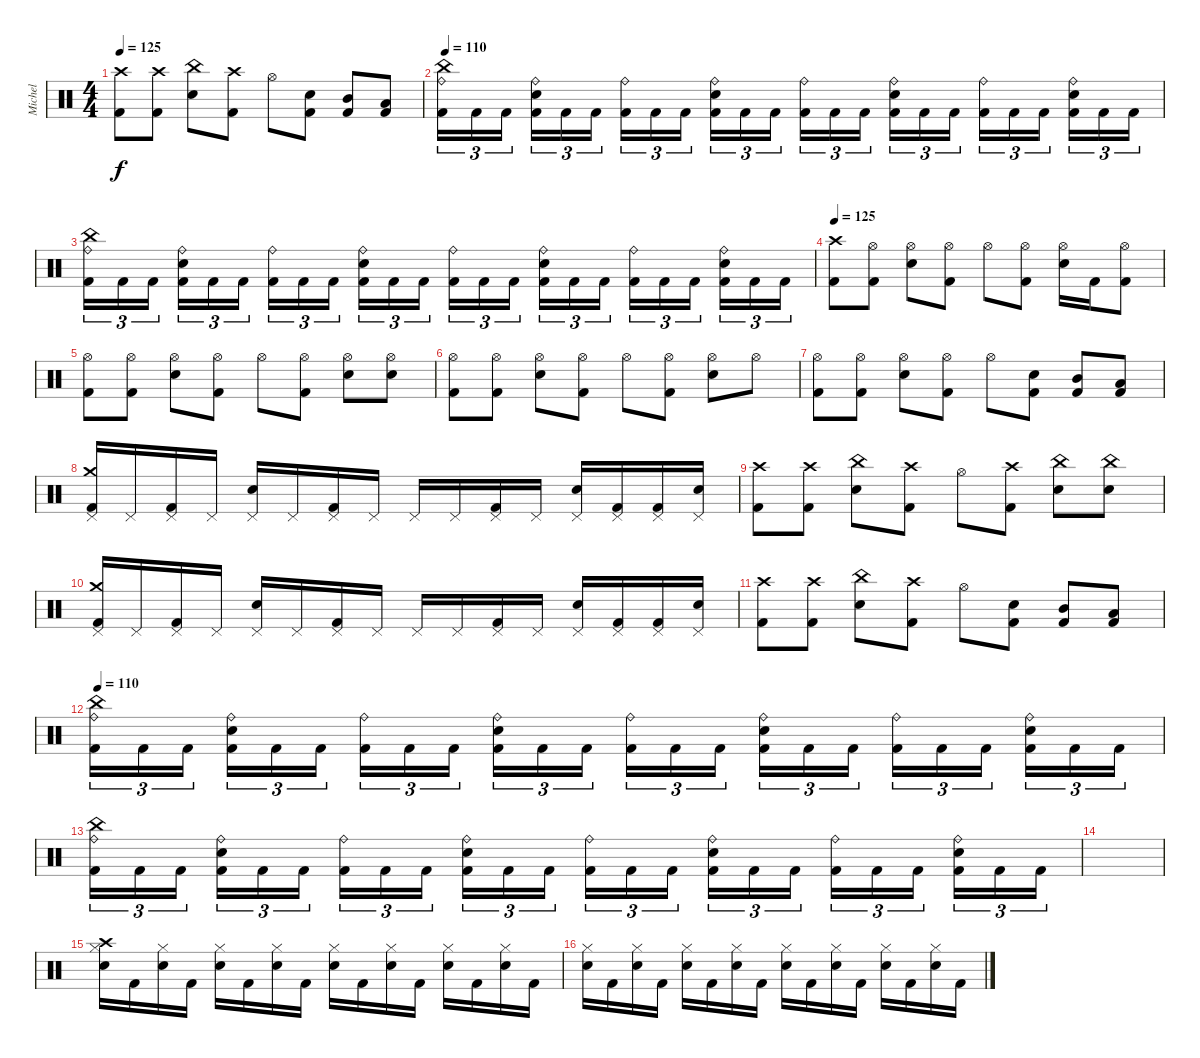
\track ("Michel" "Michel") {instrument percussion}
\staff {score}
\articulation defaults
\ts (4 4)
\tempo 125
\clef neutral
\ks c
("Crash high (hit)" "Kick (hit) 2").8{dy f} ("Crash high (hit)" "Kick (hit) 2").8 ("China (hit)" "Snare (hit) 2").8 ("Crash high (hit)" "Kick (hit) 2").8 "Hi-Hat (open)".8 ("Snare (hit) 2" "Kick (hit) 2").8 ("Mid Tom (hit)" "Kick (hit) 2").8 ("Low Tom (hit)" "Kick (hit) 2").8 |
\tempo 110
("China (hit)" "Kick (hit) 2" "Ride (bell)").16{tu (3 2)} "Kick (hit) 2".16{tu (3 2)} "Kick (hit) 2".16{tu (3 2)} ("Snare (hit) 2" "Kick (hit) 2" "Ride (bell)").16{tu (3 2)} "Kick (hit) 2".16{tu (3 2)} "Kick (hit) 2".16{tu (3 2)} ("Kick (hit) 2" "Ride (bell)").16{tu (3 2)} "Kick (hit) 2".16{tu (3 2)} "Kick (hit) 2".16{tu (3 2)} ("Snare (hit) 2" "Kick (hit) 2" "Ride (bell)").16{tu (3 2)} "Kick (hit) 2".16{tu (3 2)} "Kick (hit) 2".16{tu (3 2)} ("Kick (hit) 2" "Ride (bell)").16{tu (3 2)} "Kick (hit) 2".16{tu (3 2)} "Kick (hit) 2".16{tu (3 2)} ("Snare (hit) 2" "Kick (hit) 2" "Ride (bell)").16{tu (3 2)} "Kick (hit) 2".16{tu (3 2)} "Kick (hit) 2".16{tu (3 2)} ("Kick (hit) 2" "Ride (bell)").16{tu (3 2)} "Kick (hit) 2".16{tu (3 2)} "Kick (hit) 2".16{tu (3 2)} ("Snare (hit) 2" "Kick (hit) 2" "Ride (bell)").16{tu (3 2)} "Kick (hit) 2".16{tu (3 2)} "Kick (hit) 2".16{tu (3 2)} |
("China (hit)" "Kick (hit) 2" "Ride (bell)").16{tu (3 2)} "Kick (hit) 2".16{tu (3 2)} "Kick (hit) 2".16{tu (3 2)} ("Snare (hit) 2" "Kick (hit) 2" "Ride (bell)").16{tu (3 2)} "Kick (hit) 2".16{tu (3 2)} "Kick (hit) 2".16{tu (3 2)} ("Kick (hit) 2" "Ride (bell)").16{tu (3 2)} "Kick (hit) 2".16{tu (3 2)} "Kick (hit) 2".16{tu (3 2)} ("Snare (hit) 2" "Kick (hit) 2" "Ride (bell)").16{tu (3 2)} "Kick (hit) 2".16{tu (3 2)} "Kick (hit) 2".16{tu (3 2)} ("Kick (hit) 2" "Ride (bell)").16{tu (3 2)} "Kick (hit) 2".16{tu (3 2)} "Kick (hit) 2".16{tu (3 2)} ("Snare (hit) 2" "Kick (hit) 2" "Ride (bell)").16{tu (3 2)} "Kick (hit) 2".16{tu (3 2)} "Kick (hit) 2".16{tu (3 2)} ("Kick (hit) 2" "Ride (bell)").16{tu (3 2)} "Kick (hit) 2".16{tu (3 2)} "Kick (hit) 2".16{tu (3 2)} ("Snare (hit) 2" "Kick (hit) 2" "Ride (bell)").16{tu (3 2)} "Kick (hit) 2".16{tu (3 2)} "Kick (hit) 2".16{tu (3 2)} |
\tempo 125
("Crash high (hit)" "Kick (hit) 2").8 ("Kick (hit) 2" "Hi-Hat (open)").8 ("Snare (hit) 2" "Hi-Hat (open)").8 ("Kick (hit) 2" "Hi-Hat (open)").8 "Hi-Hat (open)".8 ("Kick (hit) 2" "Hi-Hat (open)").8 ("Snare (hit) 2" "Hi-Hat (open)").16 "Kick (hit) 2".16 ("Kick (hit) 2" "Hi-Hat (open)").8 |
("Kick (hit) 2" "Hi-Hat (open)").8 ("Kick (hit) 2" "Hi-Hat (open)").8 ("Snare (hit) 2" "Hi-Hat (open)").8 ("Kick (hit) 2" "Hi-Hat (open)").8 "Hi-Hat (open)".8 ("Kick (hit) 2" "Hi-Hat (open)").8 ("Snare (hit) 2" "Hi-Hat (open)").8 ("Snare (hit) 2" "Hi-Hat (open)").8 |
("Kick (hit) 2" "Hi-Hat (open)").8 ("Kick (hit) 2" "Hi-Hat (open)").8 ("Snare (hit) 2" "Hi-Hat (open)").8 ("Kick (hit) 2" "Hi-Hat (open)").8 "Hi-Hat (open)".8 ("Kick (hit) 2" "Hi-Hat (open)").8 ("Snare (hit) 2" "Hi-Hat (open)").8 "Hi-Hat (open)".8 |
("Kick (hit) 2" "Hi-Hat (open)").8 ("Kick (hit) 2" "Hi-Hat (open)").8 ("Snare (hit) 2" "Hi-Hat (open)").8 ("Kick (hit) 2" "Hi-Hat (open)").8 "Hi-Hat (open)".8 ("Snare (hit) 2" "Kick (hit) 2").8 ("Mid Tom (hit)" "Kick (hit) 2").8 ("Low Tom (hit)" "Kick (hit) 2").8 |
("Crash medium (hit)" "Kick (hit) 2" "Pedal Hi-Hat (hit)").16 "Pedal Hi-Hat (hit)".16 ("Kick (hit) 2" "Pedal Hi-Hat (hit)").16 "Pedal Hi-Hat (hit)".16 ("Snare (hit) 2" "Pedal Hi-Hat (hit)").16 "Pedal Hi-Hat (hit)".16 ("Kick (hit) 2" "Pedal Hi-Hat (hit)").16 "Pedal Hi-Hat (hit)".16 "Pedal Hi-Hat (hit)".16 "Pedal Hi-Hat (hit)".16 ("Kick (hit) 2" "Pedal Hi-Hat (hit)").16 "Pedal Hi-Hat (hit)".16 ("Snare (hit) 2" "Pedal Hi-Hat (hit)").16 ("Kick (hit) 2" "Pedal Hi-Hat (hit)").16 ("Kick (hit) 2" "Pedal Hi-Hat (hit)").16 ("Snare (hit) 2" "Pedal Hi-Hat (hit)").16 |
("Crash high (hit)" "Kick (hit) 2").8 ("Crash high (hit)" "Kick (hit) 2").8 ("China (hit)" "Snare (hit) 2").8 ("Crash high (hit)" "Kick (hit) 2").8 "Hi-Hat (open)".8 ("Crash high (hit)" "Kick (hit) 2").8 ("China (hit)" "Snare (hit) 2").8 ("China (hit)" "Snare (hit) 2").8 |
("Crash medium (hit)" "Kick (hit) 2" "Pedal Hi-Hat (hit)").16 "Pedal Hi-Hat (hit)".16 ("Kick (hit) 2" "Pedal Hi-Hat (hit)").16 "Pedal Hi-Hat (hit)".16 ("Snare (hit) 2" "Pedal Hi-Hat (hit)").16 "Pedal Hi-Hat (hit)".16 ("Kick (hit) 2" "Pedal Hi-Hat (hit)").16 "Pedal Hi-Hat (hit)".16 "Pedal Hi-Hat (hit)".16 "Pedal Hi-Hat (hit)".16 ("Kick (hit) 2" "Pedal Hi-Hat (hit)").16 "Pedal Hi-Hat (hit)".16 ("Snare (hit) 2" "Pedal Hi-Hat (hit)").16 ("Kick (hit) 2" "Pedal Hi-Hat (hit)").16 ("Kick (hit) 2" "Pedal Hi-Hat (hit)").16 ("Snare (hit) 2" "Pedal Hi-Hat (hit)").16 |
("Crash high (hit)" "Kick (hit) 2").8 ("Crash high (hit)" "Kick (hit) 2").8 ("China (hit)" "Snare (hit) 2").8 ("Crash high (hit)" "Kick (hit) 2").8 "Hi-Hat (open)".8 ("Snare (hit) 2" "Kick (hit) 2").8 ("Mid Tom (hit)" "Kick (hit) 2").8 ("Low Tom (hit)" "Kick (hit) 2").8 |
\tempo 110
("China (hit)" "Kick (hit) 2" "Ride (bell)").16{tu (3 2)} "Kick (hit) 2".16{tu (3 2)} "Kick (hit) 2".16{tu (3 2)} ("Snare (hit) 2" "Kick (hit) 2" "Ride (bell)").16{tu (3 2)} "Kick (hit) 2".16{tu (3 2)} "Kick (hit) 2".16{tu (3 2)} ("Kick (hit) 2" "Ride (bell)").16{tu (3 2)} "Kick (hit) 2".16{tu (3 2)} "Kick (hit) 2".16{tu (3 2)} ("Snare (hit) 2" "Kick (hit) 2" "Ride (bell)").16{tu (3 2)} "Kick (hit) 2".16{tu (3 2)} "Kick (hit) 2".16{tu (3 2)} ("Kick (hit) 2" "Ride (bell)").16{tu (3 2)} "Kick (hit) 2".16{tu (3 2)} "Kick (hit) 2".16{tu (3 2)} ("Snare (hit) 2" "Kick (hit) 2" "Ride (bell)").16{tu (3 2)} "Kick (hit) 2".16{tu (3 2)} "Kick (hit) 2".16{tu (3 2)} ("Kick (hit) 2" "Ride (bell)").16{tu (3 2)} "Kick (hit) 2".16{tu (3 2)} "Kick (hit) 2".16{tu (3 2)} ("Snare (hit) 2" "Kick (hit) 2" "Ride (bell)").16{tu (3 2)} "Kick (hit) 2".16{tu (3 2)} "Kick (hit) 2".16{tu (3 2)} |
("China (hit)" "Kick (hit) 2" "Ride (bell)").16{tu (3 2)} "Kick (hit) 2".16{tu (3 2)} "Kick (hit) 2".16{tu (3 2)} ("Snare (hit) 2" "Kick (hit) 2" "Ride (bell)").16{tu (3 2)} "Kick (hit) 2".16{tu (3 2)} "Kick (hit) 2".16{tu (3 2)} ("Kick (hit) 2" "Ride (bell)").16{tu (3 2)} "Kick (hit) 2".16{tu (3 2)} "Kick (hit) 2".16{tu (3 2)} ("Snare (hit) 2" "Kick (hit) 2" "Ride (bell)").16{tu (3 2)} "Kick (hit) 2".16{tu (3 2)} "Kick (hit) 2".16{tu (3 2)} ("Kick (hit) 2" "Ride (bell)").16{tu (3 2)} "Kick (hit) 2".16{tu (3 2)} "Kick (hit) 2".16{tu (3 2)} ("Snare (hit) 2" "Kick (hit) 2" "Ride (bell)").16{tu (3 2)} "Kick (hit) 2".16{tu (3 2)} "Kick (hit) 2".16{tu (3 2)} ("Kick (hit) 2" "Ride (bell)").16{tu (3 2)} "Kick (hit) 2".16{tu (3 2)} "Kick (hit) 2".16{tu (3 2)} ("Snare (hit) 2" "Kick (hit) 2" "Ride (bell)").16{tu (3 2)} "Kick (hit) 2".16{tu (3 2)} "Kick (hit) 2".16{tu (3 2)} |
|
("Crash high (hit)" "Snare (hit) 2" "Hi-Hat (closed)").16 "Kick (hit) 2".16 ("Snare (hit) 2" "Hi-Hat (closed)").16 "Kick (hit) 2".16 ("Snare (hit) 2" "Hi-Hat (closed)").16 "Kick (hit) 2".16 ("Snare (hit) 2" "Hi-Hat (closed)").16 "Kick (hit) 2".16 ("Snare (hit) 2" "Hi-Hat (closed)").16 "Kick (hit) 2".16 ("Snare (hit) 2" "Hi-Hat (closed)").16 "Kick (hit) 2".16 ("Snare (hit) 2" "Hi-Hat (closed)").16 "Kick (hit) 2".16 ("Snare (hit) 2" "Hi-Hat (closed)").16 "Kick (hit) 2".16 |
("Snare (hit) 2" "Hi-Hat (closed)").16 "Kick (hit) 2".16 ("Snare (hit) 2" "Hi-Hat (closed)").16 "Kick (hit) 2".16 ("Snare (hit) 2" "Hi-Hat (closed)").16 "Kick (hit) 2".16 ("Snare (hit) 2" "Hi-Hat (closed)").16 "Kick (hit) 2".16 ("Snare (hit) 2" "Hi-Hat (closed)").16 "Kick (hit) 2".16 ("Snare (hit) 2" "Hi-Hat (closed)").16 "Kick (hit) 2".16 ("Snare (hit) 2" "Hi-Hat (closed)").16 "Kick (hit) 2".16 ("Snare (hit) 2" "Hi-Hat (closed)").16 "Kick (hit) 2".16
